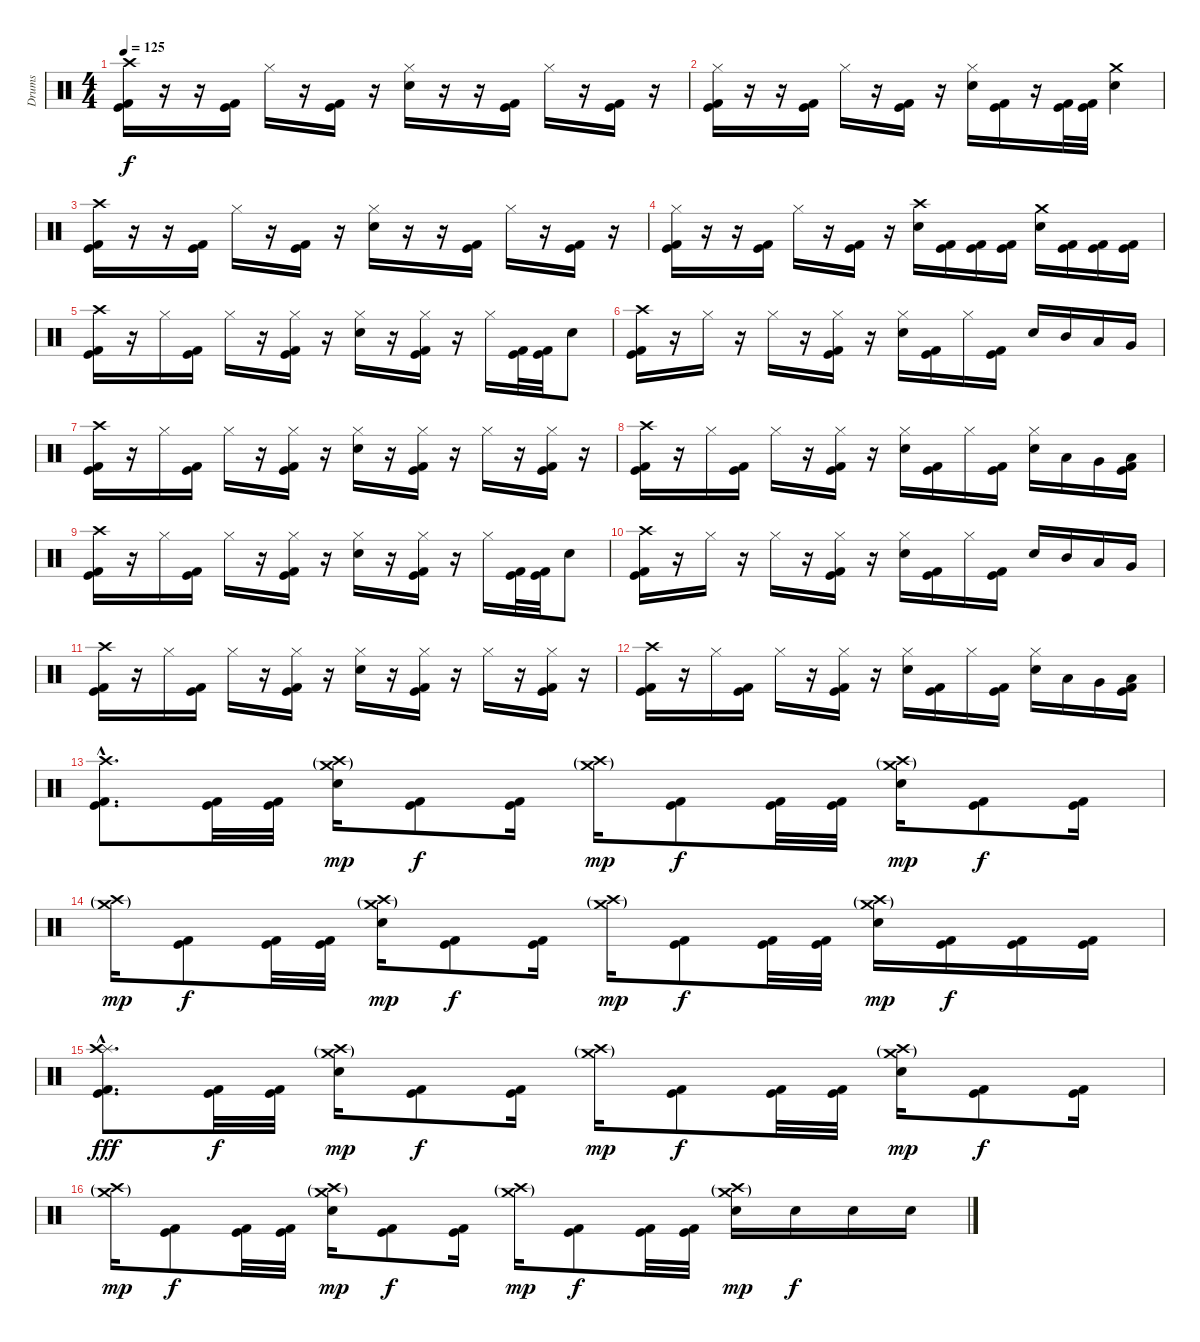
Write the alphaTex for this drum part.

\track ("Drums" "Drums") {instrument percussion}
\staff {score}
\articulation defaults
\ts (4 4)
\tempo 125
\clef neutral
\ks c
("Crash high (hit)" "Kick (hit)" "Kick (hit) 2").16{dy f} r.16 r.16 ("Kick (hit)" "Kick (hit) 2").16 "Hi-Hat (closed)".16 r.16 ("Kick (hit)" "Kick (hit) 2").16 r.16 ("Hi-Hat (closed)" "Electric Snare (hit)").16 r.16 r.16 ("Kick (hit)" "Kick (hit) 2").16 "Hi-Hat (closed)".16 r.16 ("Kick (hit)" "Kick (hit) 2").16 r.16 |
("Hi-Hat (closed)" "Kick (hit)" "Kick (hit) 2").16 r.16 r.16 ("Kick (hit)" "Kick (hit) 2").16 "Hi-Hat (closed)".16 r.16 ("Kick (hit)" "Kick (hit) 2").16 r.16 ("Hi-Hat (closed)" "Electric Snare (hit)").16 ("Kick (hit)" "Kick (hit) 2").16 r.16 ("Kick (hit)" "Kick (hit) 2").32 ("Kick (hit)" "Kick (hit) 2").32 ("Crash medium (hit)" "Electric Snare (hit)").4 |
("Crash high (hit)" "Kick (hit)" "Kick (hit) 2").16 r.16 r.16 ("Kick (hit)" "Kick (hit) 2").16 "Hi-Hat (closed)".16 r.16 ("Kick (hit)" "Kick (hit) 2").16 r.16 ("Hi-Hat (closed)" "Electric Snare (hit)").16 r.16 r.16 ("Kick (hit)" "Kick (hit) 2").16 "Hi-Hat (closed)".16 r.16 ("Kick (hit)" "Kick (hit) 2").16 r.16 |
("Hi-Hat (closed)" "Kick (hit)" "Kick (hit) 2").16 r.16 r.16 ("Kick (hit)" "Kick (hit) 2").16 "Hi-Hat (closed)".16 r.16 ("Kick (hit)" "Kick (hit) 2").16 r.16 ("Crash high (hit)" "Electric Snare (hit)").16 ("Kick (hit)" "Kick (hit) 2").16 ("Kick (hit)" "Kick (hit) 2").16 ("Kick (hit)" "Kick (hit) 2").16 ("Crash medium (hit)" "Electric Snare (hit)").16 ("Kick (hit)" "Kick (hit) 2").16 ("Kick (hit)" "Kick (hit) 2").16 ("Kick (hit)" "Kick (hit) 2").16 |
("Crash high (hit)" "Kick (hit)" "Kick (hit) 2").16 r.16 "Hi-Hat (closed)".16 ("Kick (hit)" "Kick (hit) 2").16 "Hi-Hat (closed)".16 r.16 ("Hi-Hat (closed)" "Kick (hit)" "Kick (hit) 2").16 r.16 ("Hi-Hat (closed)" "Electric Snare (hit)").16 r.16 ("Hi-Hat (closed)" "Kick (hit)" "Kick (hit) 2").16 r.16 "Hi-Hat (closed)".16 ("Kick (hit)" "Kick (hit) 2").32 ("Kick (hit)" "Kick (hit) 2").32 "Electric Snare (hit)".8 |
("Crash high (hit)" "Kick (hit)" "Kick (hit) 2").16 r.16 "Hi-Hat (closed)".16 r.16 "Hi-Hat (closed)".16 r.16 ("Hi-Hat (closed)" "Kick (hit)" "Kick (hit) 2").16 r.16 ("Hi-Hat (closed)" "Electric Snare (hit)").16 ("Kick (hit)" "Kick (hit) 2").16 "Hi-Hat (closed)".16 ("Kick (hit)" "Kick (hit) 2").16 "Electric Snare (hit)".16 "Mid Tom (hit)".16 "Low Tom (hit)".16 "Very Low Tom (hit)".16 |
("Crash high (hit)" "Kick (hit)" "Kick (hit) 2").16 r.16 "Hi-Hat (closed)".16 ("Kick (hit)" "Kick (hit) 2").16 "Hi-Hat (closed)".16 r.16 ("Hi-Hat (closed)" "Kick (hit)" "Kick (hit) 2").16 r.16 ("Hi-Hat (closed)" "Electric Snare (hit)").16 r.16 ("Hi-Hat (closed)" "Kick (hit)" "Kick (hit) 2").16 r.16 "Hi-Hat (closed)".16 r.16 ("Hi-Hat (closed)" "Kick (hit)" "Kick (hit) 2").16 r.16 |
("Crash high (hit)" "Kick (hit)" "Kick (hit) 2").16 r.16 "Hi-Hat (closed)".16 ("Kick (hit)" "Kick (hit) 2").16 "Hi-Hat (closed)".16 r.16 ("Hi-Hat (closed)" "Kick (hit)" "Kick (hit) 2").16 r.16 ("Hi-Hat (closed)" "Electric Snare (hit)").16 ("Kick (hit)" "Kick (hit) 2").16 "Hi-Hat (closed)".16 ("Kick (hit)" "Kick (hit) 2").16 ("Hi-Hat (closed)" "Electric Snare (hit)").16 "Low Tom (hit)".16 "Very Low Tom (hit)".16 ("Low Floor Tom (hit)" "Kick (hit)" "Kick (hit) 2").16 |
("Crash high (hit)" "Kick (hit)" "Kick (hit) 2").16 r.16 "Hi-Hat (closed)".16 ("Kick (hit)" "Kick (hit) 2").16 "Hi-Hat (closed)".16 r.16 ("Hi-Hat (closed)" "Kick (hit)" "Kick (hit) 2").16 r.16 ("Hi-Hat (closed)" "Electric Snare (hit)").16 r.16 ("Hi-Hat (closed)" "Kick (hit)" "Kick (hit) 2").16 r.16 "Hi-Hat (closed)".16 ("Kick (hit)" "Kick (hit) 2").32 ("Kick (hit)" "Kick (hit) 2").32 "Electric Snare (hit)".8 |
("Crash high (hit)" "Kick (hit)" "Kick (hit) 2").16 r.16 "Hi-Hat (closed)".16 r.16 "Hi-Hat (closed)".16 r.16 ("Hi-Hat (closed)" "Kick (hit)" "Kick (hit) 2").16 r.16 ("Hi-Hat (closed)" "Electric Snare (hit)").16 ("Kick (hit)" "Kick (hit) 2").16 "Hi-Hat (closed)".16 ("Kick (hit)" "Kick (hit) 2").16 "Electric Snare (hit)".16 "Mid Tom (hit)".16 "Low Tom (hit)".16 "Very Low Tom (hit)".16 |
("Crash high (hit)" "Kick (hit)" "Kick (hit) 2").16 r.16 "Hi-Hat (closed)".16 ("Kick (hit)" "Kick (hit) 2").16 "Hi-Hat (closed)".16 r.16 ("Hi-Hat (closed)" "Kick (hit)" "Kick (hit) 2").16 r.16 ("Hi-Hat (closed)" "Electric Snare (hit)").16 r.16 ("Hi-Hat (closed)" "Kick (hit)" "Kick (hit) 2").16 r.16 "Hi-Hat (closed)".16 r.16 ("Hi-Hat (closed)" "Kick (hit)" "Kick (hit) 2").16 r.16 |
("Crash high (hit)" "Kick (hit)" "Kick (hit) 2").16 r.16 "Hi-Hat (closed)".16 ("Kick (hit)" "Kick (hit) 2").16 "Hi-Hat (closed)".16 r.16 ("Hi-Hat (closed)" "Kick (hit)" "Kick (hit) 2").16 r.16 ("Hi-Hat (closed)" "Electric Snare (hit)").16 ("Kick (hit)" "Kick (hit) 2").16 "Hi-Hat (closed)".16 ("Kick (hit)" "Kick (hit) 2").16 ("Hi-Hat (closed)" "Electric Snare (hit)").16 "Low Tom (hit)".16 "Very Low Tom (hit)".16 ("Low Floor Tom (hit)" "Kick (hit)" "Kick (hit) 2").16 |
("Crash high (hit)"{hac} "Kick (hit)"{hac} "Kick (hit) 2"{hac}).8{d volume 16} ("Kick (hit)" "Kick (hit) 2").32 ("Kick (hit)" "Kick (hit) 2").32 ("Crash high (hit)"{g} "Crash medium (hit)"{g} "Electric Snare (hit)").16{dy mp} ("Kick (hit)" "Kick (hit) 2").8{dy f} ("Kick (hit)" "Kick (hit) 2").16 ("Crash high (hit)"{g} "Crash medium (hit)"{g}).16{dy mp} ("Kick (hit)" "Kick (hit) 2").8{dy f} ("Kick (hit)" "Kick (hit) 2").32 ("Kick (hit)" "Kick (hit) 2").32 ("Crash high (hit)"{g} "Crash medium (hit)"{g} "Electric Snare (hit)").16{dy mp} ("Kick (hit)" "Kick (hit) 2").8{dy f} ("Kick (hit)" "Kick (hit) 2").16 |
("Crash high (hit)"{g} "Crash medium (hit)"{g}).16{dy mp} ("Kick (hit)" "Kick (hit) 2").8{dy f} ("Kick (hit)" "Kick (hit) 2").32 ("Kick (hit)" "Kick (hit) 2").32 ("Crash high (hit)"{g} "Crash medium (hit)"{g} "Electric Snare (hit)").16{dy mp} ("Kick (hit)" "Kick (hit) 2").8{dy f} ("Kick (hit)" "Kick (hit) 2").16 ("Crash high (hit)"{g} "Crash medium (hit)"{g}).16{dy mp} ("Kick (hit)" "Kick (hit) 2").8{dy f} ("Kick (hit)" "Kick (hit) 2").32 ("Kick (hit)" "Kick (hit) 2").32 ("Crash high (hit)"{g} "Crash medium (hit)"{g} "Electric Snare (hit)").16{dy mp} ("Kick (hit)" "Kick (hit) 2").16{dy f} ("Kick (hit)" "Kick (hit) 2").16 ("Kick (hit)" "Kick (hit) 2").16 |
("Splash (hit)"{hac} "Crash high (hit)"{hac} "Kick (hit)"{hac} "Kick (hit) 2"{hac}).8{d dy fff} ("Kick (hit)" "Kick (hit) 2").32{dy f} ("Kick (hit)" "Kick (hit) 2").32 ("Crash high (hit)"{g} "Crash medium (hit)"{g} "Electric Snare (hit)").16{dy mp} ("Kick (hit)" "Kick (hit) 2").8{dy f} ("Kick (hit)" "Kick (hit) 2").16 ("Crash high (hit)"{g} "Crash medium (hit)"{g}).16{dy mp} ("Kick (hit)" "Kick (hit) 2").8{dy f} ("Kick (hit)" "Kick (hit) 2").32 ("Kick (hit)" "Kick (hit) 2").32 ("Crash high (hit)"{g} "Crash medium (hit)"{g} "Electric Snare (hit)").16{dy mp} ("Kick (hit)" "Kick (hit) 2").8{dy f} ("Kick (hit)" "Kick (hit) 2").16 |
("Crash high (hit)"{g} "Crash medium (hit)"{g}).16{dy mp} ("Kick (hit)" "Kick (hit) 2").8{dy f} ("Kick (hit)" "Kick (hit) 2").32 ("Kick (hit)" "Kick (hit) 2").32 ("Crash high (hit)"{g} "Crash medium (hit)"{g} "Electric Snare (hit)").16{dy mp} ("Kick (hit)" "Kick (hit) 2").8{dy f} ("Kick (hit)" "Kick (hit) 2").16 ("Crash high (hit)"{g} "Crash medium (hit)"{g}).16{dy mp} ("Kick (hit)" "Kick (hit) 2").8{dy f} ("Kick (hit)" "Kick (hit) 2").32 ("Kick (hit)" "Kick (hit) 2").32 ("Crash high (hit)"{g} "Crash medium (hit)"{g} "Electric Snare (hit)").16{dy mp} "Electric Snare (hit)".16{dy f} "Electric Snare (hit)".16 "Electric Snare (hit)".16
